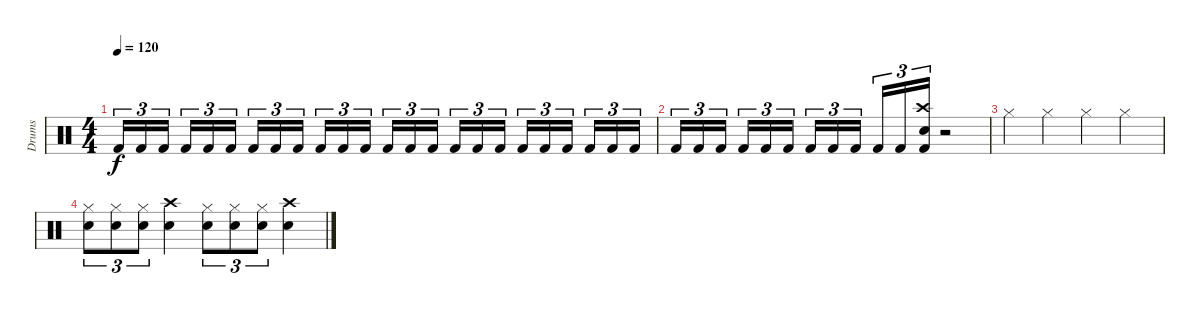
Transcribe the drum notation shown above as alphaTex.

\track ("Drums" "Drums") {instrument percussion}
\staff {score}
\articulation defaults
\ts (4 4)
\tempo 120
\clef neutral
\ks c "Kick (hit) 2".16{tu (3 2) dy f} "Kick (hit) 2".16{tu (3 2)} "Kick (hit) 2".16{tu (3 2) beam splitsecondary} "Kick (hit) 2".16{tu (3 2)} "Kick (hit) 2".16{tu (3 2)} "Kick (hit) 2".16{tu (3 2)} "Kick (hit) 2".16{tu (3 2)} "Kick (hit) 2".16{tu (3 2)} "Kick (hit) 2".16{tu (3 2) beam splitsecondary} "Kick (hit) 2".16{tu (3 2)} "Kick (hit) 2".16{tu (3 2)} "Kick (hit) 2".16{tu (3 2)} "Kick (hit) 2".16{tu (3 2)} "Kick (hit) 2".16{tu (3 2)} "Kick (hit) 2".16{tu (3 2) beam splitsecondary} "Kick (hit) 2".16{tu (3 2)} "Kick (hit) 2".16{tu (3 2)} "Kick (hit) 2".16{tu (3 2)} "Kick (hit) 2".16{tu (3 2)} "Kick (hit) 2".16{tu (3 2)} "Kick (hit) 2".16{tu (3 2) beam splitsecondary} "Kick (hit) 2".16{tu (3 2)} "Kick (hit) 2".16{tu (3 2)} "Kick (hit) 2".16{tu (3 2)}
|
"Kick (hit) 2".16{tu (3 2)} "Kick (hit) 2".16{tu (3 2)} "Kick (hit) 2".16{tu (3 2) beam splitsecondary} "Kick (hit) 2".16{tu (3 2)} "Kick (hit) 2".16{tu (3 2)} "Kick (hit) 2".16{tu (3 2)} "Kick (hit) 2".16{tu (3 2)} "Kick (hit) 2".16{tu (3 2)} "Kick (hit) 2".16{tu (3 2) beam splitsecondary} "Kick (hit) 2".16{tu (3 2)} "Kick (hit) 2".16{tu (3 2)} ("Crash high (hit)" "Snare (hit) 2" "Kick (hit) 2").16{tu (3 2)} r.2 |
"Hi-Hat (closed)".4 "Hi-Hat (closed)".4 "Hi-Hat (closed)".4 "Hi-Hat (closed)".4 |
("Snare (hit) 2" "Hi-Hat (closed)").8{tu (3 2)} ("Snare (hit) 2" "Hi-Hat (closed)").8{tu (3 2)} ("Snare (hit) 2" "Hi-Hat (closed)").8{tu (3 2)} ("Snare (hit) 2" "Crash high (hit)").4 ("Snare (hit) 2" "Hi-Hat (closed)").8{tu (3 2)} ("Snare (hit) 2" "Hi-Hat (closed)").8{tu (3 2)} ("Snare (hit) 2" "Hi-Hat (closed)").8{tu (3 2)} ("Snare (hit) 2" "Crash high (hit)").4
